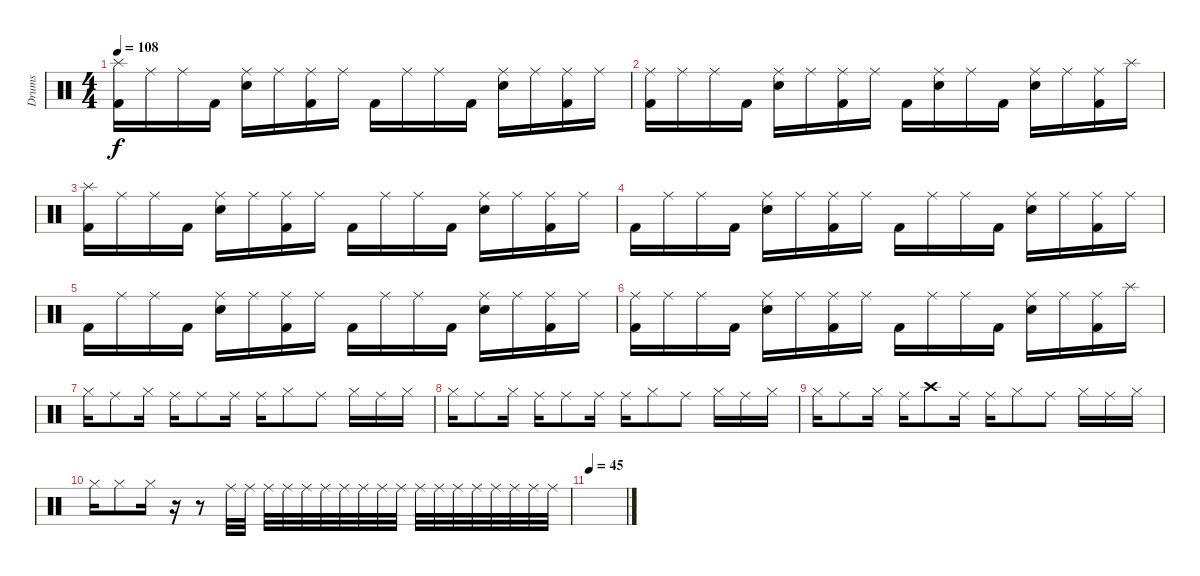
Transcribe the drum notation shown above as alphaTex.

\track ("Drums" "Drums") {instrument percussion}
\staff {score}
\articulation defaults
\ts (4 4)
\tempo 108
\clef neutral
\ks c
("Splash (hit)" "Kick (hit) 2").16{dy f} "Ride (middle)".16 "Ride (middle)".16 "Kick (hit) 2".16 ("Ride (middle)" "Snare (hit) 2").16 "Ride (middle)".16 ("Ride (middle)" "Kick (hit) 2").16 "Ride (middle)".16 "Kick (hit) 2".16 "Ride (middle)".16 "Ride (middle)".16 "Kick (hit) 2".16 ("Ride (middle)" "Snare (hit) 2").16 "Ride (middle)".16 ("Ride (middle)" "Kick (hit) 2").16 "Ride (middle)".16 |
("Ride (middle)" "Kick (hit) 2").16 "Ride (middle)".16 "Ride (middle)".16 "Kick (hit) 2".16 ("Ride (middle)" "Snare (hit) 2").16 "Ride (middle)".16 ("Ride (middle)" "Kick (hit) 2").16 "Ride (middle)".16 "Kick (hit) 2".16{volume 16} ("Ride (middle)" "Snare (hit) 2").16{volume 16} "Ride (middle)".16 "Kick (hit) 2".16{volume 16} ("Ride (middle)" "Snare (hit) 2").16{volume 16} "Ride (middle)".16 ("Ride (middle)" "Kick (hit) 2").16 "Splash (hit)".16 |
("Splash (hit)" "Kick (hit) 2").16 "Ride (middle)".16 "Ride (middle)".16 "Kick (hit) 2".16 ("Ride (middle)" "Snare (hit) 2").16 "Ride (middle)".16 ("Ride (middle)" "Kick (hit) 2").16 "Ride (middle)".16 "Kick (hit) 2".16 "Ride (middle)".16 "Ride (middle)".16 "Kick (hit) 2".16 ("Ride (middle)" "Snare (hit) 2").16 "Ride (middle)".16 ("Ride (middle)" "Kick (hit) 2").16 "Ride (middle)".16 |
"Kick (hit) 2".16 "Ride (middle)".16 "Ride (middle)".16 "Kick (hit) 2".16 ("Ride (middle)" "Snare (hit) 2").16 "Ride (middle)".16 ("Ride (middle)" "Kick (hit) 2").16 "Ride (middle)".16 "Kick (hit) 2".16 "Ride (middle)".16 "Ride (middle)".16 "Kick (hit) 2".16 ("Ride (middle)" "Snare (hit) 2").16 "Ride (middle)".16 ("Ride (middle)" "Kick (hit) 2").16 "Ride (middle)".16 |
"Kick (hit) 2".16 "Ride (middle)".16 "Ride (middle)".16 "Kick (hit) 2".16 ("Ride (middle)" "Snare (hit) 2").16 "Ride (middle)".16 ("Ride (middle)" "Kick (hit) 2").16 "Ride (middle)".16 "Kick (hit) 2".16 "Ride (middle)".16 "Ride (middle)".16 "Kick (hit) 2".16 ("Ride (middle)" "Snare (hit) 2").16 "Ride (middle)".16 ("Ride (middle)" "Kick (hit) 2").16 "Ride (middle)".16 |
("Ride (middle)" "Kick (hit) 2").16 "Ride (middle)".16 "Ride (middle)".16 "Kick (hit) 2".16 ("Ride (middle)" "Snare (hit) 2").16 "Ride (middle)".16 ("Ride (middle)" "Kick (hit) 2").16 "Ride (middle)".16 "Kick (hit) 2".16 "Ride (middle)".16 "Ride (middle)".16 "Kick (hit) 2".16 ("Ride (middle)" "Snare (hit) 2").16 "Ride (middle)".16 ("Ride (middle)" "Kick (hit) 2").16 "Splash (hit)".16 |
"Hi-Hat (closed)".16 "Ride (middle)".8 "Hi-Hat (closed)".16 "Ride (middle)".16 "Ride (middle)".8{volume 10} "Ride (middle)".16 "Ride (middle)".16 "Hi-Hat (closed)".8 "Ride (middle)".8 "Hi-Hat (closed)".16 "Ride (middle)".16 "Hi-Hat (closed)".16 |
"Hi-Hat (closed)".16 "Ride (middle)".8 "Hi-Hat (closed)".16 "Ride (middle)".16 "Ride (middle)".8{volume 10} "Ride (middle)".16 "Ride (middle)".16 "Hi-Hat (closed)".8 "Ride (middle)".8 "Hi-Hat (closed)".16 "Ride (middle)".16 "Hi-Hat (closed)".16 |
"Hi-Hat (closed)".16 "Ride (middle)".8 "Hi-Hat (closed)".16 "Ride (middle)".16 "Crash high (hit)".8{volume 10} "Ride (middle)".16 "Ride (middle)".16 "Hi-Hat (closed)".8 "Ride (middle)".8 "Hi-Hat (closed)".16 "Ride (middle)".16 "Hi-Hat (closed)".16 |
"Hi-Hat (closed)".16{volume 8} "Hi-Hat (closed)".8{volume 10} "Hi-Hat (closed)".16 r.16 r.8 "Ride (middle)".32 "Ride (middle)".32 "Ride (middle)".32 "Ride (middle)".32 "Ride (middle)".32 "Ride (middle)".32 "Ride (middle)".32 "Ride (middle)".32 "Ride (middle)".32 "Ride (middle)".32 "Ride (middle)".32 "Ride (middle)".32 "Ride (middle)".32 "Ride (middle)".32 "Ride (middle)".32 "Ride (middle)".32 "Ride (middle)".32 "Ride (middle)".32 |
\tempo 45
